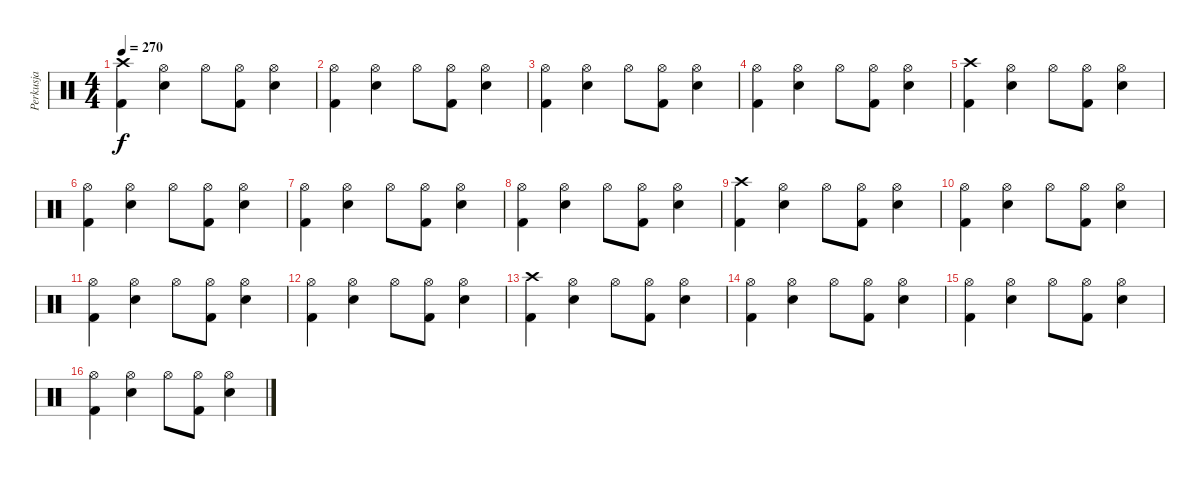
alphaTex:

\track ("Perkusja" "Perkusja") {instrument percussion}
\staff {score}
\articulation defaults
\ts (4 4)
\tempo 270
\clef neutral
\ks c
("Crash high (hit)" "Kick (hit) 2").4{dy f} ("Hi-Hat (open)" "Electric Snare (hit)").4 "Hi-Hat (open)".8 ("Hi-Hat (open)" "Kick (hit) 2").8 ("Hi-Hat (open)" "Electric Snare (hit)").4 |
("Hi-Hat (open)" "Kick (hit) 2").4 ("Hi-Hat (open)" "Electric Snare (hit)").4 "Hi-Hat (open)".8 ("Hi-Hat (open)" "Kick (hit) 2").8 ("Hi-Hat (open)" "Electric Snare (hit)").4 |
("Hi-Hat (open)" "Kick (hit) 2").4 ("Hi-Hat (open)" "Electric Snare (hit)").4 "Hi-Hat (open)".8 ("Hi-Hat (open)" "Kick (hit) 2").8 ("Hi-Hat (open)" "Electric Snare (hit)").4 |
("Hi-Hat (open)" "Kick (hit) 2").4 ("Hi-Hat (open)" "Electric Snare (hit)").4 "Hi-Hat (open)".8 ("Hi-Hat (open)" "Kick (hit) 2").8 ("Hi-Hat (open)" "Electric Snare (hit)").4 |
("Crash high (hit)" "Kick (hit) 2").4 ("Hi-Hat (open)" "Electric Snare (hit)").4 "Hi-Hat (open)".8 ("Hi-Hat (open)" "Kick (hit) 2").8 ("Hi-Hat (open)" "Electric Snare (hit)").4 |
("Hi-Hat (open)" "Kick (hit) 2").4 ("Hi-Hat (open)" "Electric Snare (hit)").4 "Hi-Hat (open)".8 ("Hi-Hat (open)" "Kick (hit) 2").8 ("Hi-Hat (open)" "Electric Snare (hit)").4 |
("Hi-Hat (open)" "Kick (hit) 2").4 ("Hi-Hat (open)" "Electric Snare (hit)").4 "Hi-Hat (open)".8 ("Hi-Hat (open)" "Kick (hit) 2").8 ("Hi-Hat (open)" "Electric Snare (hit)").4 |
("Hi-Hat (open)" "Kick (hit) 2").4 ("Hi-Hat (open)" "Electric Snare (hit)").4 "Hi-Hat (open)".8 ("Hi-Hat (open)" "Kick (hit) 2").8 ("Hi-Hat (open)" "Electric Snare (hit)").4 |
("Crash high (hit)" "Kick (hit) 2").4 ("Hi-Hat (open)" "Electric Snare (hit)").4 "Hi-Hat (open)".8 ("Hi-Hat (open)" "Kick (hit) 2").8 ("Hi-Hat (open)" "Electric Snare (hit)").4 |
("Hi-Hat (open)" "Kick (hit) 2").4 ("Hi-Hat (open)" "Electric Snare (hit)").4 "Hi-Hat (open)".8 ("Hi-Hat (open)" "Kick (hit) 2").8 ("Hi-Hat (open)" "Electric Snare (hit)").4 |
("Hi-Hat (open)" "Kick (hit) 2").4 ("Hi-Hat (open)" "Electric Snare (hit)").4 "Hi-Hat (open)".8 ("Hi-Hat (open)" "Kick (hit) 2").8 ("Hi-Hat (open)" "Electric Snare (hit)").4 |
("Hi-Hat (open)" "Kick (hit) 2").4 ("Hi-Hat (open)" "Electric Snare (hit)").4 "Hi-Hat (open)".8 ("Hi-Hat (open)" "Kick (hit) 2").8 ("Hi-Hat (open)" "Electric Snare (hit)").4 |
("Crash high (hit)" "Kick (hit) 2").4 ("Hi-Hat (open)" "Electric Snare (hit)").4 "Hi-Hat (open)".8 ("Hi-Hat (open)" "Kick (hit) 2").8 ("Hi-Hat (open)" "Electric Snare (hit)").4 |
("Hi-Hat (open)" "Kick (hit) 2").4 ("Hi-Hat (open)" "Electric Snare (hit)").4 "Hi-Hat (open)".8 ("Hi-Hat (open)" "Kick (hit) 2").8 ("Hi-Hat (open)" "Electric Snare (hit)").4 |
("Hi-Hat (open)" "Kick (hit) 2").4 ("Hi-Hat (open)" "Electric Snare (hit)").4 "Hi-Hat (open)".8 ("Hi-Hat (open)" "Kick (hit) 2").8 ("Hi-Hat (open)" "Electric Snare (hit)").4 |
("Hi-Hat (open)" "Kick (hit) 2").4 ("Hi-Hat (open)" "Electric Snare (hit)").4 "Hi-Hat (open)".8 ("Hi-Hat (open)" "Kick (hit) 2").8 ("Hi-Hat (open)" "Electric Snare (hit)").4
